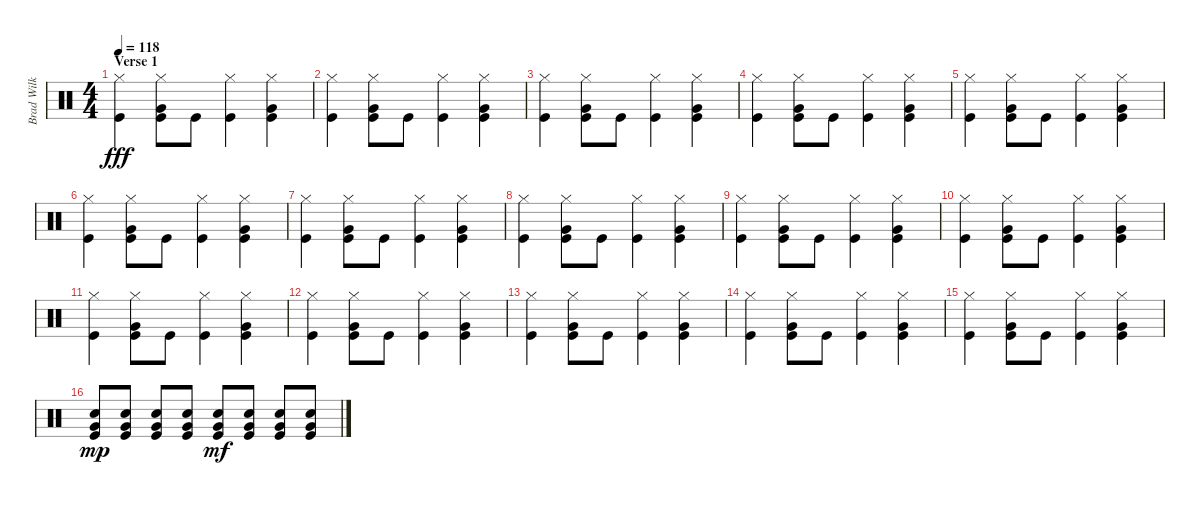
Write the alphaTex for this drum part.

\track ("Brad Wilk - Drums" "Brad Wilk ") {instrument percussion}
\staff {score}
\articulation defaults
\ts (4 4)
\section ("" "Verse 1")
\tempo 118
\clef neutral
\ks c
("Hi-Hat (closed)" "Kick (hit)").4{dy fff} ("Hi-Hat (closed)" "Very Low Tom (hit)" "Kick (hit)").8 "Kick (hit)".8 ("Hi-Hat (closed)" "Kick (hit)").4 ("Hi-Hat (closed)" "Very Low Tom (hit)" "Kick (hit)").4 |
("Hi-Hat (closed)" "Kick (hit)").4 ("Hi-Hat (closed)" "Very Low Tom (hit)" "Kick (hit)").8 "Kick (hit)".8 ("Hi-Hat (closed)" "Kick (hit)").4 ("Hi-Hat (closed)" "Very Low Tom (hit)" "Kick (hit)").4 |
("Hi-Hat (closed)" "Kick (hit)").4 ("Hi-Hat (closed)" "Very Low Tom (hit)" "Kick (hit)").8 "Kick (hit)".8 ("Hi-Hat (closed)" "Kick (hit)").4 ("Hi-Hat (closed)" "Very Low Tom (hit)" "Kick (hit)").4 |
("Hi-Hat (closed)" "Kick (hit)").4 ("Hi-Hat (closed)" "Very Low Tom (hit)" "Kick (hit)").8 "Kick (hit)".8 ("Hi-Hat (closed)" "Kick (hit)").4 ("Hi-Hat (closed)" "Very Low Tom (hit)" "Kick (hit)").4 |
("Hi-Hat (closed)" "Kick (hit)").4 ("Hi-Hat (closed)" "Very Low Tom (hit)" "Kick (hit)").8 "Kick (hit)".8 ("Hi-Hat (closed)" "Kick (hit)").4 ("Hi-Hat (closed)" "Very Low Tom (hit)" "Kick (hit)").4 |
("Hi-Hat (closed)" "Kick (hit)").4 ("Hi-Hat (closed)" "Very Low Tom (hit)" "Kick (hit)").8 "Kick (hit)".8 ("Hi-Hat (closed)" "Kick (hit)").4 ("Hi-Hat (closed)" "Very Low Tom (hit)" "Kick (hit)").4 |
("Hi-Hat (closed)" "Kick (hit)").4 ("Hi-Hat (closed)" "Very Low Tom (hit)" "Kick (hit)").8 "Kick (hit)".8 ("Hi-Hat (closed)" "Kick (hit)").4 ("Hi-Hat (closed)" "Very Low Tom (hit)" "Kick (hit)").4 |
("Hi-Hat (closed)" "Kick (hit)").4 ("Hi-Hat (closed)" "Very Low Tom (hit)" "Kick (hit)").8 "Kick (hit)".8 ("Hi-Hat (closed)" "Kick (hit)").4 ("Hi-Hat (closed)" "Very Low Tom (hit)" "Kick (hit)").4 |
("Hi-Hat (closed)" "Kick (hit)").4 ("Hi-Hat (closed)" "Very Low Tom (hit)" "Kick (hit)").8 "Kick (hit)".8 ("Hi-Hat (closed)" "Kick (hit)").4 ("Hi-Hat (closed)" "Very Low Tom (hit)" "Kick (hit)").4 |
("Hi-Hat (closed)" "Kick (hit)").4 ("Hi-Hat (closed)" "Very Low Tom (hit)" "Kick (hit)").8 "Kick (hit)".8 ("Hi-Hat (closed)" "Kick (hit)").4 ("Hi-Hat (closed)" "Very Low Tom (hit)" "Kick (hit)").4 |
("Hi-Hat (closed)" "Kick (hit)").4 ("Hi-Hat (closed)" "Very Low Tom (hit)" "Kick (hit)").8 "Kick (hit)".8 ("Hi-Hat (closed)" "Kick (hit)").4 ("Hi-Hat (closed)" "Very Low Tom (hit)" "Kick (hit)").4 |
("Hi-Hat (closed)" "Kick (hit)").4 ("Hi-Hat (closed)" "Very Low Tom (hit)" "Kick (hit)").8 "Kick (hit)".8 ("Hi-Hat (closed)" "Kick (hit)").4 ("Hi-Hat (closed)" "Very Low Tom (hit)" "Kick (hit)").4 |
("Hi-Hat (closed)" "Kick (hit)").4 ("Hi-Hat (closed)" "Very Low Tom (hit)" "Kick (hit)").8 "Kick (hit)".8 ("Hi-Hat (closed)" "Kick (hit)").4 ("Hi-Hat (closed)" "Very Low Tom (hit)" "Kick (hit)").4 |
("Hi-Hat (closed)" "Kick (hit)").4 ("Hi-Hat (closed)" "Very Low Tom (hit)" "Kick (hit)").8 "Kick (hit)".8 ("Hi-Hat (closed)" "Kick (hit)").4 ("Hi-Hat (closed)" "Very Low Tom (hit)" "Kick (hit)").4 |
("Hi-Hat (closed)" "Kick (hit)").4 ("Hi-Hat (closed)" "Very Low Tom (hit)" "Kick (hit)").8 "Kick (hit)".8 ("Hi-Hat (closed)" "Kick (hit)").4 ("Hi-Hat (closed)" "Very Low Tom (hit)" "Kick (hit)").4 |
("Snare (hit) 2" "Very Low Tom (hit)" "Kick (hit)").8{dy mp} ("Snare (hit) 2" "Very Low Tom (hit)" "Kick (hit)").8 ("Snare (hit) 2" "Very Low Tom (hit)" "Kick (hit)").8 ("Snare (hit) 2" "Very Low Tom (hit)" "Kick (hit)").8 ("Snare (hit) 2" "Very Low Tom (hit)" "Kick (hit)").8{dy mf} ("Snare (hit) 2" "Very Low Tom (hit)" "Kick (hit)").8 ("Snare (hit) 2" "Very Low Tom (hit)" "Kick (hit)").8 ("Snare (hit) 2" "Very Low Tom (hit)" "Kick (hit)").8
